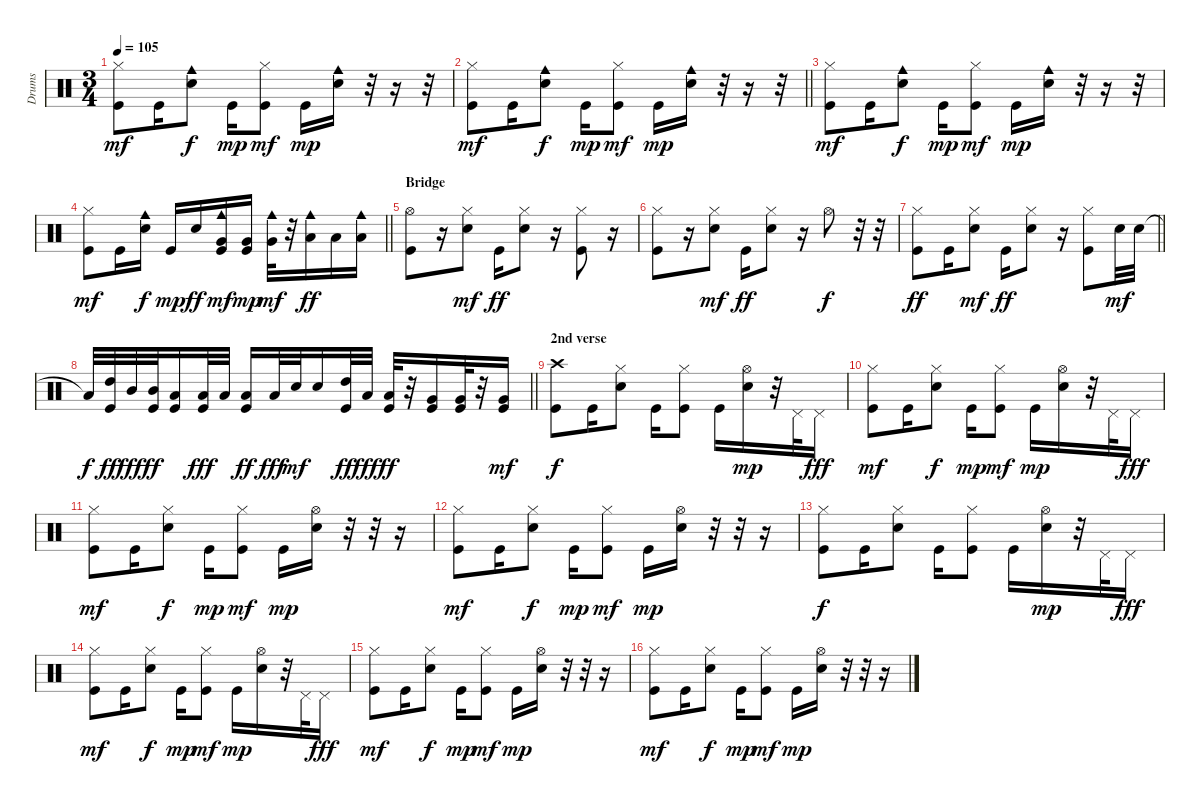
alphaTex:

\track ("Drums" "Drums") {instrument percussion}
\staff {score}
\articulation defaults
\ts (3 4)
\tempo 105
\clef neutral
\ks c
("Hi-Hat (closed)" "Kick (hit)").8{dy mf} "Kick (hit)".16 ("Cowbell medium (hit)" "Snare (hit) 2").8{dy f} "Kick (hit)".16{dy mp} ("Hi-Hat (closed)" "Kick (hit)").8{dy mf} "Kick (hit)".16{dy mp} ("Cowbell medium (hit)" "Snare (hit) 2").16 r.32 r.16 r.32 |
\barLineRight lightlight
("Hi-Hat (closed)" "Kick (hit)").8{dy mf} "Kick (hit)".16 ("Cowbell medium (hit)" "Snare (hit) 2").8{dy f} "Kick (hit)".16{dy mp} ("Hi-Hat (closed)" "Kick (hit)").8{dy mf} "Kick (hit)".16{dy mp} ("Cowbell medium (hit)" "Snare (hit) 2").16 r.32 r.16 r.32 |
("Hi-Hat (closed)" "Kick (hit)").8{dy mf} "Kick (hit)".16 ("Cowbell medium (hit)" "Snare (hit) 2").8{dy f} "Kick (hit)".16{dy mp} ("Hi-Hat (closed)" "Kick (hit)").8{dy mf} "Kick (hit)".16{dy mp} ("Cowbell medium (hit)" "Snare (hit) 2").16 r.32 r.16 r.32 |
\barLineRight lightlight
("Hi-Hat (closed)" "Kick (hit)").8{dy mf} "Kick (hit)".16 ("Cowbell medium (hit)" "Snare (hit) 2").16{dy f} "Kick (hit)".16{dy mp} "Snare (hit) 2".16{dy ff} ("Cowbell medium (hit)" "Very Low Tom (hit)" "Kick (hit)").16{dy mf} ("Very Low Tom (hit)" "Kick (hit)").16{dy mp} ("Cowbell medium (hit)" "Very Low Tom (hit)").32{dy mf} r.32 ("Cowbell medium (hit)" "Low Tom (hit)").16{dy ff} "Low Tom (hit)".16 ("Cowbell medium (hit)" "Low Tom (hit)").16 |
\section ("" "Bridge")
("Hi-Hat (open)" "Kick (hit)").8 r.16 ("Hi-Hat (closed)" "Snare (hit) 2").8{dy mf} "Kick (hit)".16{dy ff} ("Hi-Hat (closed)" "Snare (hit) 2").8 r.16 ("Hi-Hat (closed)" "Kick (hit)").8 r.16 |
("Hi-Hat (closed)" "Kick (hit)").8 r.16 ("Hi-Hat (closed)" "Snare (hit) 2").8{dy mf} "Kick (hit)".16{dy ff} ("Hi-Hat (closed)" "Snare (hit) 2").8 r.16 "Hi-Hat (open)".8{dy f} r.32 r.32 |
\barLineRight lightlight
("Hi-Hat (closed)" "Kick (hit)").8{dy ff} "Kick (hit)".16 ("Hi-Hat (closed)" "Snare (hit) 2").8{dy mf} "Kick (hit)".16{dy ff} ("Hi-Hat (closed)" "Snare (hit) 2").8 r.16 ("Hi-Hat (closed)" "Kick (hit)").8 "Snare (hit) 2".32{dy mf} "Snare (hit) 2".32 |
\barLineRight lightlight "Low Tom (hit)"{t}.32{dy f}
("High Tom (hit)" "Kick (hit)").32{dy ff} "Mid Tom (hit)".32{dy fff} ("Mid Tom (hit)" "Kick (hit)").32{dy ff} ("Low Tom (hit)" "Kick (hit)").16 ("Low Tom (hit)" "Kick (hit)").32{dy fff} "Low Tom (hit)".32 ("Low Tom (hit)" "Kick (hit)").16{dy ff} "Low Tom (hit)".32{dy fff} "Snare (hit) 2".32{dy mf} "Snare (hit) 2".16 ("High Tom (hit)" "Kick (hit)").32{dy ff} "Low Tom (hit)".32{dy fff} ("Low Tom (hit)" "Kick (hit)").32{dy ff} r.32 ("Very Low Tom (hit)" "Kick (hit)").16 ("Very Low Tom (hit)" "Kick (hit)").32 r.32 ("Very Low Tom (hit)" "Kick (hit)").16{dy mf} |
\section ("" "2nd verse")
("Crash high (hit)" "Kick (hit)").8{dy f} "Kick (hit)".16 ("Hi-Hat (closed)" "Snare (hit) 2").8 "Kick (hit)".16 ("Hi-Hat (closed)" "Kick (hit)").8 "Kick (hit)".16 ("Hi-Hat (open)" "Snare (hit) 2").16{dy mp} r.32 "Pedal Hi-Hat (hit)".32 "Pedal Hi-Hat (hit)".16{dy fff} |
("Hi-Hat (closed)" "Kick (hit)").8{dy mf} "Kick (hit)".16 ("Hi-Hat (closed)" "Snare (hit) 2").8{dy f} "Kick (hit)".16{dy mp} ("Hi-Hat (closed)" "Kick (hit)").8{dy mf} "Kick (hit)".16{dy mp} ("Hi-Hat (open)" "Snare (hit) 2").16 r.32 "Pedal Hi-Hat (hit)".32 "Pedal Hi-Hat (hit)".16{dy fff} |
("Hi-Hat (closed)" "Kick (hit)").8{dy mf} "Kick (hit)".16 ("Hi-Hat (closed)" "Snare (hit) 2").8{dy f} "Kick (hit)".16{dy mp} ("Hi-Hat (closed)" "Kick (hit)").8{dy mf} "Kick (hit)".16{dy mp} ("Hi-Hat (open)" "Snare (hit) 2").16 r.32 r.32 r.16 |
("Hi-Hat (closed)" "Kick (hit)").8{dy mf} "Kick (hit)".16 ("Hi-Hat (closed)" "Snare (hit) 2").8{dy f} "Kick (hit)".16{dy mp} ("Hi-Hat (closed)" "Kick (hit)").8{dy mf} "Kick (hit)".16{dy mp} ("Hi-Hat (open)" "Snare (hit) 2").16 r.32 r.32 r.16 |
("Hi-Hat (closed)" "Kick (hit)").8{dy f} "Kick (hit)".16 ("Hi-Hat (closed)" "Snare (hit) 2").8 "Kick (hit)".16 ("Hi-Hat (closed)" "Kick (hit)").8 "Kick (hit)".16 ("Hi-Hat (open)" "Snare (hit) 2").16{dy mp} r.32 "Pedal Hi-Hat (hit)".32 "Pedal Hi-Hat (hit)".16{dy fff} |
("Hi-Hat (closed)" "Kick (hit)").8{dy mf} "Kick (hit)".16 ("Hi-Hat (closed)" "Snare (hit) 2").8{dy f} "Kick (hit)".16{dy mp} ("Hi-Hat (closed)" "Kick (hit)").8{dy mf} "Kick (hit)".16{dy mp} ("Hi-Hat (open)" "Snare (hit) 2").16 r.32 "Pedal Hi-Hat (hit)".32 "Pedal Hi-Hat (hit)".16{dy fff} |
("Hi-Hat (closed)" "Kick (hit)").8{dy mf} "Kick (hit)".16 ("Hi-Hat (closed)" "Snare (hit) 2").8{dy f} "Kick (hit)".16{dy mp} ("Hi-Hat (closed)" "Kick (hit)").8{dy mf} "Kick (hit)".16{dy mp} ("Hi-Hat (open)" "Snare (hit) 2").16 r.32 r.32 r.16 |
("Hi-Hat (closed)" "Kick (hit)").8{dy mf} "Kick (hit)".16 ("Hi-Hat (closed)" "Snare (hit) 2").8{dy f} "Kick (hit)".16{dy mp} ("Hi-Hat (closed)" "Kick (hit)").8{dy mf} "Kick (hit)".16{dy mp} ("Hi-Hat (open)" "Snare (hit) 2").16 r.32 r.32 r.16
